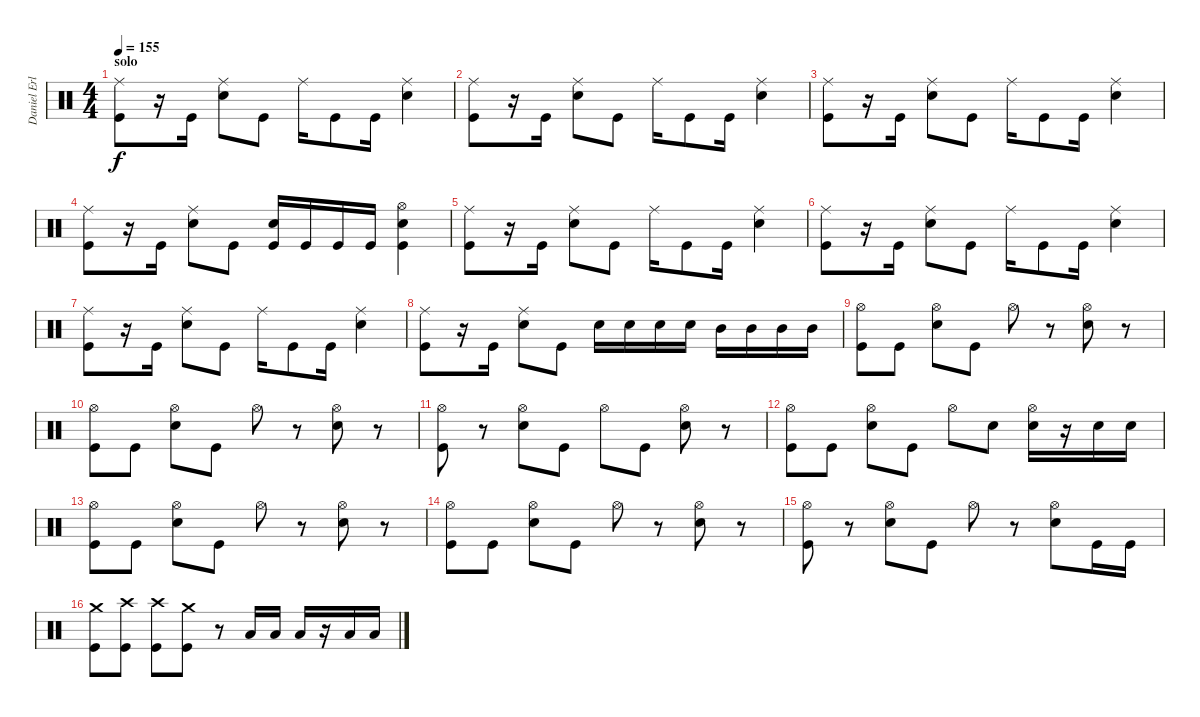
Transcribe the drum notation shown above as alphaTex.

\track ("Daniel Erlandsson" "Daniel Erl") {instrument percussion}
\staff {score}
\articulation defaults
\ts (4 4)
\section ("" "solo")
\tempo 155
\clef neutral
\ks c
("Ride (middle)" "Kick (hit)").8{dy f} r.16 "Kick (hit)".16 ("Ride (middle)" "Snare (hit) 2").8 "Kick (hit)".8 "Ride (middle)".16 "Kick (hit)".8 "Kick (hit)".16 ("Ride (middle)" "Snare (hit) 2").4 |
("Ride (middle)" "Kick (hit)").8 r.16 "Kick (hit)".16 ("Ride (middle)" "Snare (hit) 2").8 "Kick (hit)".8 "Ride (middle)".16 "Kick (hit)".8 "Kick (hit)".16 ("Ride (middle)" "Snare (hit) 2").4 |
("Ride (middle)" "Kick (hit)").8 r.16 "Kick (hit)".16 ("Ride (middle)" "Snare (hit) 2").8 "Kick (hit)".8 "Ride (middle)".16 "Kick (hit)".8 "Kick (hit)".16 ("Ride (middle)" "Snare (hit) 2").4 |
("Ride (middle)" "Kick (hit)").8 r.16 "Kick (hit)".16 ("Ride (middle)" "Snare (hit) 2").8 "Kick (hit)".8 ("Snare (hit) 2" "Kick (hit)").16 "Kick (hit)".16 "Kick (hit)".16 "Kick (hit)".16 ("Hi-Hat (open)" "Snare (hit) 2" "Kick (hit)").4 |
("Ride (middle)" "Kick (hit)").8 r.16 "Kick (hit)".16 ("Ride (middle)" "Snare (hit) 2").8 "Kick (hit)".8 "Ride (middle)".16 "Kick (hit)".8 "Kick (hit)".16 ("Ride (middle)" "Snare (hit) 2").4 |
("Ride (middle)" "Kick (hit)").8 r.16 "Kick (hit)".16 ("Ride (middle)" "Snare (hit) 2").8 "Kick (hit)".8 "Ride (middle)".16 "Kick (hit)".8 "Kick (hit)".16 ("Ride (middle)" "Snare (hit) 2").4 |
("Ride (middle)" "Kick (hit)").8 r.16 "Kick (hit)".16 ("Ride (middle)" "Snare (hit) 2").8 "Kick (hit)".8 "Ride (middle)".16 "Kick (hit)".8 "Kick (hit)".16 ("Ride (middle)" "Snare (hit) 2").4 |
("Ride (middle)" "Kick (hit)").8 r.16 "Kick (hit)".16 ("Ride (middle)" "Snare (hit) 2").8 "Kick (hit)".8 "Snare (hit) 2".16 "Snare (hit) 2".16 "Snare (hit) 2".16 "Snare (hit) 2".16 "Mid Tom (hit)".16 "Mid Tom (hit)".16 "Mid Tom (hit)".16 "Mid Tom (hit)".16 |
("Hi-Hat (open)" "Kick (hit)").8 "Kick (hit)".8 ("Hi-Hat (open)" "Snare (hit) 2").8 "Kick (hit)".8 "Hi-Hat (open)".8 r.8 ("Hi-Hat (open)" "Snare (hit) 2").8 r.8 |
("Hi-Hat (open)" "Kick (hit)").8 "Kick (hit)".8 ("Hi-Hat (open)" "Snare (hit) 2").8 "Kick (hit)".8 "Hi-Hat (open)".8 r.8 ("Hi-Hat (open)" "Snare (hit) 2").8 r.8 |
("Hi-Hat (open)" "Kick (hit)").8 r.8 ("Hi-Hat (open)" "Snare (hit) 2").8 "Kick (hit)".8 "Hi-Hat (open)".8 "Kick (hit)".8 ("Hi-Hat (open)" "Snare (hit) 2").8 r.8 |
("Hi-Hat (open)" "Kick (hit)").8 "Kick (hit)".8 ("Hi-Hat (open)" "Snare (hit) 2").8 "Kick (hit)".8 "Hi-Hat (open)".8 "Snare (hit) 2".8 ("Hi-Hat (open)" "Snare (hit) 2").16 r.16 "Snare (hit) 2".16 "Snare (hit) 2".16 |
("Hi-Hat (open)" "Kick (hit)").8 "Kick (hit)".8 ("Hi-Hat (open)" "Snare (hit) 2").8 "Kick (hit)".8 "Hi-Hat (open)".8 r.8 ("Hi-Hat (open)" "Snare (hit) 2").8 r.8 |
("Hi-Hat (open)" "Kick (hit)").8 "Kick (hit)".8 ("Hi-Hat (open)" "Snare (hit) 2").8 "Kick (hit)".8 "Hi-Hat (open)".8 r.8 ("Hi-Hat (open)" "Snare (hit) 2").8 r.8 |
("Hi-Hat (open)" "Kick (hit)").8 r.8 ("Hi-Hat (open)" "Snare (hit) 2").8 "Kick (hit)".8 "Hi-Hat (open)".8 r.8 ("Hi-Hat (open)" "Snare (hit) 2").8 "Kick (hit)".16 "Kick (hit)".16 |
("Crash medium (hit)" "Kick (hit)").8 ("Crash high (hit)" "Kick (hit)").8 ("Crash high (hit)" "Kick (hit)").8 ("Crash medium (hit)" "Kick (hit)").8 r.8 "Low Tom (hit)".16 "Low Tom (hit)".16 "Low Tom (hit)".16 r.16 "Low Floor Tom (hit)".16 "Low Floor Tom (hit)".16
